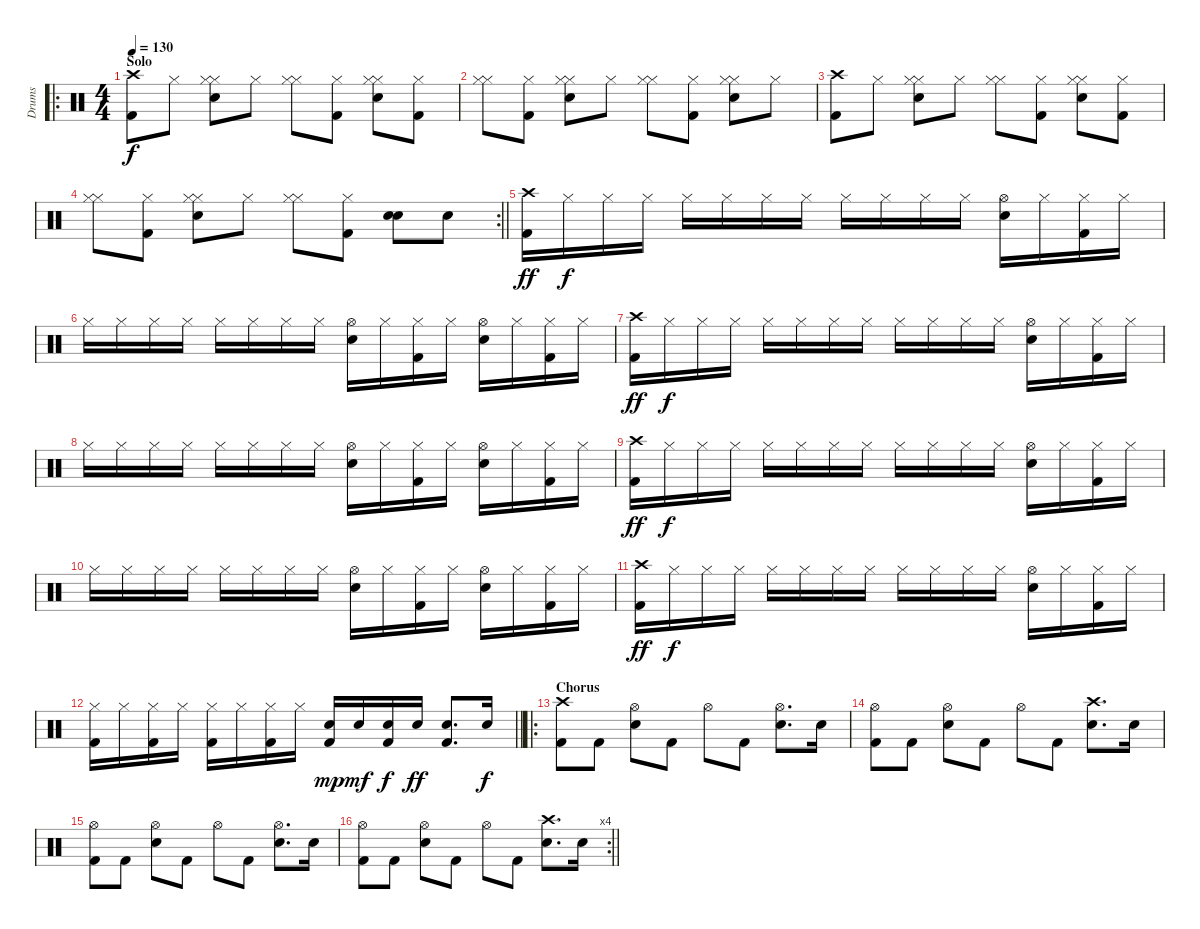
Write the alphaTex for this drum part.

\track ("Drums" "Drums") {instrument percussion}
\staff {score}
\articulation defaults
\ro
\ts (4 4)
\section ("" "Solo")
\tempo 130
\clef neutral
\ks c
("Crash high (hit)" "Kick (hit) 2").8{dy f} "Hi-Hat (closed)".8 ("Hi-Hat (closed)" "Snare (hit) 2" "Hi-Hat (closed)").8 "Hi-Hat (closed)".8 ("Hi-Hat (closed)" "Hi-Hat (closed)").8 ("Kick (hit) 2" "Hi-Hat (closed)").8 ("Hi-Hat (closed)" "Snare (hit) 2" "Hi-Hat (closed)").8 ("Kick (hit) 2" "Hi-Hat (closed)").8 |
("Hi-Hat (closed)" "Hi-Hat (closed)").8 ("Kick (hit) 2" "Hi-Hat (closed)").8 ("Hi-Hat (closed)" "Snare (hit) 2" "Hi-Hat (closed)").8 "Hi-Hat (closed)".8 ("Hi-Hat (closed)" "Hi-Hat (closed)").8 ("Kick (hit) 2" "Hi-Hat (closed)").8 ("Hi-Hat (closed)" "Snare (hit) 2" "Hi-Hat (closed)").8 "Hi-Hat (closed)".8 |
("Crash high (hit)" "Kick (hit) 2").8 "Hi-Hat (closed)".8 ("Hi-Hat (closed)" "Snare (hit) 2" "Hi-Hat (closed)").8 "Hi-Hat (closed)".8 ("Hi-Hat (closed)" "Hi-Hat (closed)").8 ("Kick (hit) 2" "Hi-Hat (closed)").8 ("Hi-Hat (closed)" "Snare (hit) 2" "Hi-Hat (closed)").8 ("Kick (hit) 2" "Hi-Hat (closed)").8 |
\rc 2
\barLineRight lightlight
("Hi-Hat (closed)" "Hi-Hat (closed)").8 ("Kick (hit) 2" "Hi-Hat (closed)").8 ("Hi-Hat (closed)" "Snare (hit) 2" "Hi-Hat (closed)").8 "Hi-Hat (closed)".8 ("Hi-Hat (closed)" "Hi-Hat (closed)").8 ("Kick (hit) 2" "Hi-Hat (closed)").8 ("Snare (hit) 2" "Electric Snare (hit)").8 "Electric Snare (hit)".8 |
("Crash high (hit)" "Kick (hit) 2").16{dy ff} "Hi-Hat (closed)".16{dy f} "Hi-Hat (closed)".16 "Hi-Hat (closed)".16 "Hi-Hat (closed)".16 "Hi-Hat (closed)".16 "Hi-Hat (closed)".16 "Hi-Hat (closed)".16 "Hi-Hat (closed)".16 "Hi-Hat (closed)".16 "Hi-Hat (closed)".16 "Hi-Hat (closed)".16 ("Hi-Hat (open)" "Electric Snare (hit)").16 "Hi-Hat (closed)".16 ("Hi-Hat (closed)" "Kick (hit) 2").16 "Hi-Hat (closed)".16 |
"Hi-Hat (closed)".16 "Hi-Hat (closed)".16 "Hi-Hat (closed)".16 "Hi-Hat (closed)".16 "Hi-Hat (closed)".16 "Hi-Hat (closed)".16 "Hi-Hat (closed)".16 "Hi-Hat (closed)".16 ("Hi-Hat (open)" "Electric Snare (hit)").16 "Hi-Hat (closed)".16 ("Hi-Hat (closed)" "Kick (hit) 2").16 "Hi-Hat (closed)".16 ("Hi-Hat (open)" "Electric Snare (hit)").16 "Hi-Hat (closed)".16 ("Hi-Hat (closed)" "Kick (hit) 2").16 "Hi-Hat (closed)".16 |
("Crash high (hit)" "Kick (hit) 2").16{dy ff} "Hi-Hat (closed)".16{dy f} "Hi-Hat (closed)".16 "Hi-Hat (closed)".16 "Hi-Hat (closed)".16 "Hi-Hat (closed)".16 "Hi-Hat (closed)".16 "Hi-Hat (closed)".16 "Hi-Hat (closed)".16 "Hi-Hat (closed)".16 "Hi-Hat (closed)".16 "Hi-Hat (closed)".16 ("Hi-Hat (open)" "Electric Snare (hit)").16 "Hi-Hat (closed)".16 ("Hi-Hat (closed)" "Kick (hit) 2").16 "Hi-Hat (closed)".16 |
"Hi-Hat (closed)".16 "Hi-Hat (closed)".16 "Hi-Hat (closed)".16 "Hi-Hat (closed)".16 "Hi-Hat (closed)".16 "Hi-Hat (closed)".16 "Hi-Hat (closed)".16 "Hi-Hat (closed)".16 ("Hi-Hat (open)" "Electric Snare (hit)").16 "Hi-Hat (closed)".16 ("Hi-Hat (closed)" "Kick (hit) 2").16 "Hi-Hat (closed)".16 ("Hi-Hat (open)" "Electric Snare (hit)").16 "Hi-Hat (closed)".16 ("Hi-Hat (closed)" "Kick (hit) 2").16 "Hi-Hat (closed)".16 |
("Crash high (hit)" "Kick (hit) 2").16{dy ff} "Hi-Hat (closed)".16{dy f} "Hi-Hat (closed)".16 "Hi-Hat (closed)".16 "Hi-Hat (closed)".16 "Hi-Hat (closed)".16 "Hi-Hat (closed)".16 "Hi-Hat (closed)".16 "Hi-Hat (closed)".16 "Hi-Hat (closed)".16 "Hi-Hat (closed)".16 "Hi-Hat (closed)".16 ("Hi-Hat (open)" "Electric Snare (hit)").16 "Hi-Hat (closed)".16 ("Hi-Hat (closed)" "Kick (hit) 2").16 "Hi-Hat (closed)".16 |
"Hi-Hat (closed)".16 "Hi-Hat (closed)".16 "Hi-Hat (closed)".16 "Hi-Hat (closed)".16 "Hi-Hat (closed)".16 "Hi-Hat (closed)".16 "Hi-Hat (closed)".16 "Hi-Hat (closed)".16 ("Hi-Hat (open)" "Electric Snare (hit)").16 "Hi-Hat (closed)".16 ("Hi-Hat (closed)" "Kick (hit) 2").16 "Hi-Hat (closed)".16 ("Hi-Hat (open)" "Electric Snare (hit)").16 "Hi-Hat (closed)".16 ("Hi-Hat (closed)" "Kick (hit) 2").16 "Hi-Hat (closed)".16 |
("Crash high (hit)" "Kick (hit) 2").16{dy ff} "Hi-Hat (closed)".16{dy f} "Hi-Hat (closed)".16 "Hi-Hat (closed)".16 "Hi-Hat (closed)".16 "Hi-Hat (closed)".16 "Hi-Hat (closed)".16 "Hi-Hat (closed)".16 "Hi-Hat (closed)".16 "Hi-Hat (closed)".16 "Hi-Hat (closed)".16 "Hi-Hat (closed)".16 ("Hi-Hat (open)" "Electric Snare (hit)").16 "Hi-Hat (closed)".16 ("Hi-Hat (closed)" "Kick (hit) 2").16 "Hi-Hat (closed)".16 |
\barLineRight lightlight
("Hi-Hat (closed)" "Kick (hit) 2").16 "Hi-Hat (closed)".16 ("Hi-Hat (closed)" "Kick (hit) 2").16 "Hi-Hat (closed)".16 ("Hi-Hat (closed)" "Kick (hit) 2").16 "Hi-Hat (closed)".16 ("Hi-Hat (closed)" "Kick (hit) 2").16 "Hi-Hat (closed)".16 ("Snare (hit) 2" "Kick (hit) 2").16{dy mp} "Snare (hit) 2".16{dy mf} ("Snare (hit) 2" "Kick (hit) 2").16{dy f} "Snare (hit) 2".16{dy ff} ("Snare (hit) 2" "Kick (hit) 2").8{d} "Snare (hit) 2".16{dy f} |
\ro
\section ("" "Chorus")
("Crash high (hit)" "Kick (hit) 2").8 "Kick (hit) 2".8 ("Hi-Hat (open)" "Electric Snare (hit)").8 "Kick (hit) 2".8 "Hi-Hat (open)".8 "Kick (hit) 2".8 ("Hi-Hat (open)" "Electric Snare (hit)").8{d} "Electric Snare (hit)".16 |
("Hi-Hat (open)" "Kick (hit) 2").8 "Kick (hit) 2".8 ("Hi-Hat (open)" "Electric Snare (hit)").8 "Kick (hit) 2".8 "Hi-Hat (open)".8 "Kick (hit) 2".8 ("Crash high (hit)" "Electric Snare (hit)").8{d} "Electric Snare (hit)".16 |
("Hi-Hat (open)" "Kick (hit) 2").8 "Kick (hit) 2".8 ("Hi-Hat (open)" "Electric Snare (hit)").8 "Kick (hit) 2".8 "Hi-Hat (open)".8 "Kick (hit) 2".8 ("Hi-Hat (open)" "Electric Snare (hit)").8{d} "Electric Snare (hit)".16 |
\rc 4
\barLineRight lightlight
("Hi-Hat (open)" "Kick (hit) 2").8 "Kick (hit) 2".8 ("Hi-Hat (open)" "Electric Snare (hit)").8 "Kick (hit) 2".8 "Hi-Hat (open)".8 "Kick (hit) 2".8 ("Crash high (hit)" "Electric Snare (hit)").8{d} "Electric Snare (hit)".16
